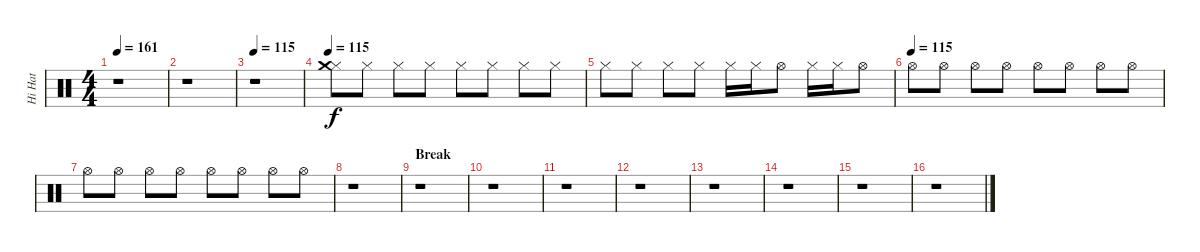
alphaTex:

\track ("Hi Hat" "Hi Hat") {instrument percussion}
\staff {score}
\articulation defaults
\ts (4 4)
\tempo 161
\clef neutral
\ks c
r.1{dy f} |
r.1 |
\tempo 115
r.1 |
\tempo 115
("Hi-Hat (closed)" "Crash medium (hit)").8 "Hi-Hat (closed)".8 "Hi-Hat (closed)".8 "Hi-Hat (closed)".8 "Hi-Hat (closed)".8 "Hi-Hat (closed)".8 "Hi-Hat (closed)".8 "Hi-Hat (closed)".8 |
"Hi-Hat (closed)".8 "Hi-Hat (closed)".8 "Hi-Hat (closed)".8 "Hi-Hat (closed)".8 "Hi-Hat (closed)".16 "Hi-Hat (closed)".16 "Hi-Hat (open)".8 "Hi-Hat (closed)".16 "Hi-Hat (closed)".16 "Hi-Hat (open)".8 |
\tempo (115)
"Hi-Hat (open)".8 "Hi-Hat (open)".8 "Hi-Hat (open)".8 "Hi-Hat (open)".8 "Hi-Hat (open)".8 "Hi-Hat (open)".8 "Hi-Hat (open)".8 "Hi-Hat (open)".8 |
"Hi-Hat (open)".8 "Hi-Hat (open)".8 "Hi-Hat (open)".8 "Hi-Hat (open)".8 "Hi-Hat (open)".8 "Hi-Hat (open)".8 "Hi-Hat (open)".8 "Hi-Hat (open)".8 |
r.1 |
\section ("" "Break")
r.1 |
r.1 |
r.1 |
r.1 |
r.1 |
r.1 |
r.1 |
r.1
